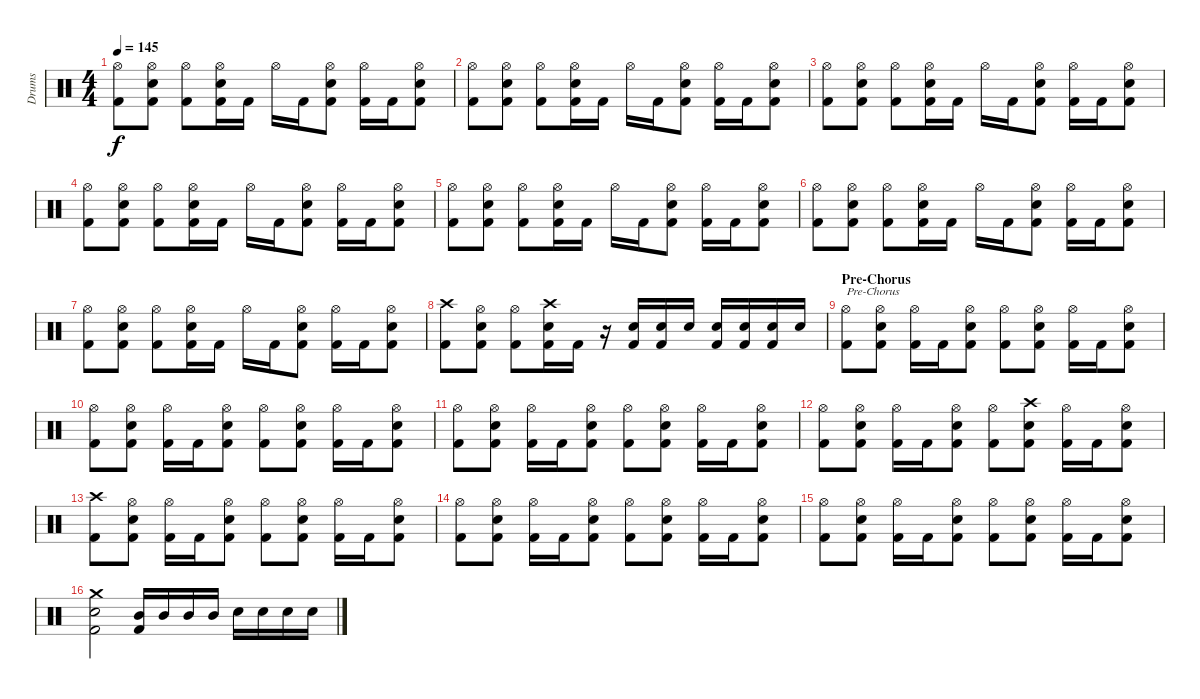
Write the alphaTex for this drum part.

\track ("Drums" "Drums") {instrument percussion}
\staff {score}
\articulation defaults
\ts (4 4)
\tempo 145
\clef neutral
\ks c
("Hi-Hat (open)" "Kick (hit) 2").8{dy f} ("Hi-Hat (open)" "Electric Snare (hit)" "Kick (hit) 2").8 ("Hi-Hat (open)" "Kick (hit) 2").8 ("Hi-Hat (open)" "Electric Snare (hit)" "Kick (hit) 2").16 "Kick (hit) 2".16 "Hi-Hat (open)".16 "Kick (hit) 2".16 ("Hi-Hat (open)" "Electric Snare (hit)" "Kick (hit) 2").8 ("Hi-Hat (open)" "Kick (hit) 2").16 "Kick (hit) 2".16 ("Hi-Hat (open)" "Electric Snare (hit)" "Kick (hit) 2").8 |
("Hi-Hat (open)" "Kick (hit) 2").8 ("Hi-Hat (open)" "Electric Snare (hit)" "Kick (hit) 2").8 ("Hi-Hat (open)" "Kick (hit) 2").8 ("Hi-Hat (open)" "Electric Snare (hit)" "Kick (hit) 2").16 "Kick (hit) 2".16 "Hi-Hat (open)".16 "Kick (hit) 2".16 ("Hi-Hat (open)" "Electric Snare (hit)" "Kick (hit) 2").8 ("Hi-Hat (open)" "Kick (hit) 2").16 "Kick (hit) 2".16 ("Hi-Hat (open)" "Electric Snare (hit)" "Kick (hit) 2").8 |
("Hi-Hat (open)" "Kick (hit) 2").8 ("Hi-Hat (open)" "Electric Snare (hit)" "Kick (hit) 2").8 ("Hi-Hat (open)" "Kick (hit) 2").8 ("Hi-Hat (open)" "Electric Snare (hit)" "Kick (hit) 2").16 "Kick (hit) 2".16 "Hi-Hat (open)".16 "Kick (hit) 2".16 ("Hi-Hat (open)" "Electric Snare (hit)" "Kick (hit) 2").8 ("Hi-Hat (open)" "Kick (hit) 2").16 "Kick (hit) 2".16 ("Hi-Hat (open)" "Electric Snare (hit)" "Kick (hit) 2").8 |
("Hi-Hat (open)" "Kick (hit) 2").8 ("Hi-Hat (open)" "Electric Snare (hit)" "Kick (hit) 2").8 ("Hi-Hat (open)" "Kick (hit) 2").8 ("Hi-Hat (open)" "Electric Snare (hit)" "Kick (hit) 2").16 "Kick (hit) 2".16 "Hi-Hat (open)".16 "Kick (hit) 2".16 ("Hi-Hat (open)" "Electric Snare (hit)" "Kick (hit) 2").8 ("Hi-Hat (open)" "Kick (hit) 2").16 "Kick (hit) 2".16 ("Hi-Hat (open)" "Electric Snare (hit)" "Kick (hit) 2").8 |
("Hi-Hat (open)" "Kick (hit) 2").8 ("Hi-Hat (open)" "Electric Snare (hit)" "Kick (hit) 2").8 ("Hi-Hat (open)" "Kick (hit) 2").8 ("Hi-Hat (open)" "Electric Snare (hit)" "Kick (hit) 2").16 "Kick (hit) 2".16 "Hi-Hat (open)".16 "Kick (hit) 2".16 ("Hi-Hat (open)" "Electric Snare (hit)" "Kick (hit) 2").8 ("Hi-Hat (open)" "Kick (hit) 2").16 "Kick (hit) 2".16 ("Hi-Hat (open)" "Electric Snare (hit)" "Kick (hit) 2").8 |
("Hi-Hat (open)" "Kick (hit) 2").8 ("Hi-Hat (open)" "Electric Snare (hit)" "Kick (hit) 2").8 ("Hi-Hat (open)" "Kick (hit) 2").8 ("Hi-Hat (open)" "Electric Snare (hit)" "Kick (hit) 2").16 "Kick (hit) 2".16 "Hi-Hat (open)".16 "Kick (hit) 2".16 ("Hi-Hat (open)" "Electric Snare (hit)" "Kick (hit) 2").8 ("Hi-Hat (open)" "Kick (hit) 2").16 "Kick (hit) 2".16 ("Hi-Hat (open)" "Electric Snare (hit)" "Kick (hit) 2").8 |
("Hi-Hat (open)" "Kick (hit) 2").8 ("Hi-Hat (open)" "Electric Snare (hit)" "Kick (hit) 2").8 ("Hi-Hat (open)" "Kick (hit) 2").8 ("Hi-Hat (open)" "Electric Snare (hit)" "Kick (hit) 2").16 "Kick (hit) 2".16 "Hi-Hat (open)".16 "Kick (hit) 2".16 ("Hi-Hat (open)" "Electric Snare (hit)" "Kick (hit) 2").8 ("Hi-Hat (open)" "Kick (hit) 2").16 "Kick (hit) 2".16 ("Hi-Hat (open)" "Electric Snare (hit)" "Kick (hit) 2").8 |
("Crash high (hit)" "Kick (hit) 2").8 ("Hi-Hat (open)" "Electric Snare (hit)" "Kick (hit) 2").8 ("Hi-Hat (open)" "Kick (hit) 2").8 ("Crash high (hit)" "Electric Snare (hit)" "Kick (hit) 2").16 "Kick (hit) 2".16 r.16 ("Electric Snare (hit)" "Kick (hit) 2").16 ("Electric Snare (hit)" "Kick (hit) 2").16 "Electric Snare (hit)".16 ("Electric Snare (hit)" "Kick (hit) 2").16 ("Electric Snare (hit)" "Kick (hit) 2").16 ("Electric Snare (hit)" "Kick (hit) 2").16 "Electric Snare (hit)".16 |
\section ("" "Pre-Chorus")
("Hi-Hat (open)" "Kick (hit) 2").8{txt "Pre-Chorus"} ("Hi-Hat (open)" "Electric Snare (hit)" "Kick (hit) 2").8 ("Hi-Hat (open)" "Kick (hit) 2").16 "Kick (hit) 2".16 ("Hi-Hat (open)" "Electric Snare (hit)" "Kick (hit) 2").8 ("Hi-Hat (open)" "Kick (hit) 2").8 ("Hi-Hat (open)" "Electric Snare (hit)" "Kick (hit) 2").8 ("Hi-Hat (open)" "Kick (hit) 2").16 "Kick (hit) 2".16 ("Hi-Hat (open)" "Electric Snare (hit)" "Kick (hit) 2").8 |
("Hi-Hat (open)" "Kick (hit) 2").8 ("Hi-Hat (open)" "Electric Snare (hit)" "Kick (hit) 2").8 ("Hi-Hat (open)" "Kick (hit) 2").16 "Kick (hit) 2".16 ("Hi-Hat (open)" "Electric Snare (hit)" "Kick (hit) 2").8 ("Hi-Hat (open)" "Kick (hit) 2").8 ("Hi-Hat (open)" "Electric Snare (hit)" "Kick (hit) 2").8 ("Hi-Hat (open)" "Kick (hit) 2").16 "Kick (hit) 2".16 ("Hi-Hat (open)" "Electric Snare (hit)" "Kick (hit) 2").8 |
("Hi-Hat (open)" "Kick (hit) 2").8 ("Hi-Hat (open)" "Electric Snare (hit)" "Kick (hit) 2").8 ("Hi-Hat (open)" "Kick (hit) 2").16 "Kick (hit) 2".16 ("Hi-Hat (open)" "Electric Snare (hit)" "Kick (hit) 2").8 ("Hi-Hat (open)" "Kick (hit) 2").8 ("Hi-Hat (open)" "Electric Snare (hit)" "Kick (hit) 2").8 ("Hi-Hat (open)" "Kick (hit) 2").16 "Kick (hit) 2".16 ("Hi-Hat (open)" "Electric Snare (hit)" "Kick (hit) 2").8 |
("Hi-Hat (open)" "Kick (hit) 2").8 ("Hi-Hat (open)" "Electric Snare (hit)" "Kick (hit) 2").8 ("Hi-Hat (open)" "Kick (hit) 2").16 "Kick (hit) 2".16 ("Hi-Hat (open)" "Electric Snare (hit)" "Kick (hit) 2").8 ("Hi-Hat (open)" "Kick (hit) 2").8 ("Crash high (hit)" "Electric Snare (hit)" "Kick (hit) 2").8 ("Hi-Hat (open)" "Kick (hit) 2").16 "Kick (hit) 2".16 ("Hi-Hat (open)" "Electric Snare (hit)" "Kick (hit) 2").8 |
("Crash high (hit)" "Kick (hit) 2").8 ("Hi-Hat (open)" "Electric Snare (hit)" "Kick (hit) 2").8 ("Hi-Hat (open)" "Kick (hit) 2").16 "Kick (hit) 2".16 ("Hi-Hat (open)" "Electric Snare (hit)" "Kick (hit) 2").8 ("Hi-Hat (open)" "Kick (hit) 2").8 ("Hi-Hat (open)" "Electric Snare (hit)" "Kick (hit) 2").8 ("Hi-Hat (open)" "Kick (hit) 2").16 "Kick (hit) 2".16 ("Hi-Hat (open)" "Electric Snare (hit)" "Kick (hit) 2").8 |
("Hi-Hat (open)" "Kick (hit) 2").8 ("Hi-Hat (open)" "Electric Snare (hit)" "Kick (hit) 2").8 ("Hi-Hat (open)" "Kick (hit) 2").16 "Kick (hit) 2".16 ("Hi-Hat (open)" "Electric Snare (hit)" "Kick (hit) 2").8 ("Hi-Hat (open)" "Kick (hit) 2").8 ("Hi-Hat (open)" "Electric Snare (hit)" "Kick (hit) 2").8 ("Hi-Hat (open)" "Kick (hit) 2").16 "Kick (hit) 2".16 ("Hi-Hat (open)" "Electric Snare (hit)" "Kick (hit) 2").8 |
("Hi-Hat (open)" "Kick (hit) 2").8 ("Hi-Hat (open)" "Electric Snare (hit)" "Kick (hit) 2").8 ("Hi-Hat (open)" "Kick (hit) 2").16 "Kick (hit) 2".16 ("Hi-Hat (open)" "Electric Snare (hit)" "Kick (hit) 2").8 ("Hi-Hat (open)" "Kick (hit) 2").8 ("Hi-Hat (open)" "Electric Snare (hit)" "Kick (hit) 2").8 ("Hi-Hat (open)" "Kick (hit) 2").16 "Kick (hit) 2".16 ("Hi-Hat (open)" "Electric Snare (hit)" "Kick (hit) 2").8 |
("Crash medium (hit)" "Electric Snare (hit)" "Kick (hit) 2").2 ("Mid Tom (hit)" "Kick (hit) 2").16 "Mid Tom (hit)".16 "Mid Tom (hit)".16 "Mid Tom (hit)".16 "Electric Snare (hit)".16 "Electric Snare (hit)".16 "Electric Snare (hit)".16 "Electric Snare (hit)".16
